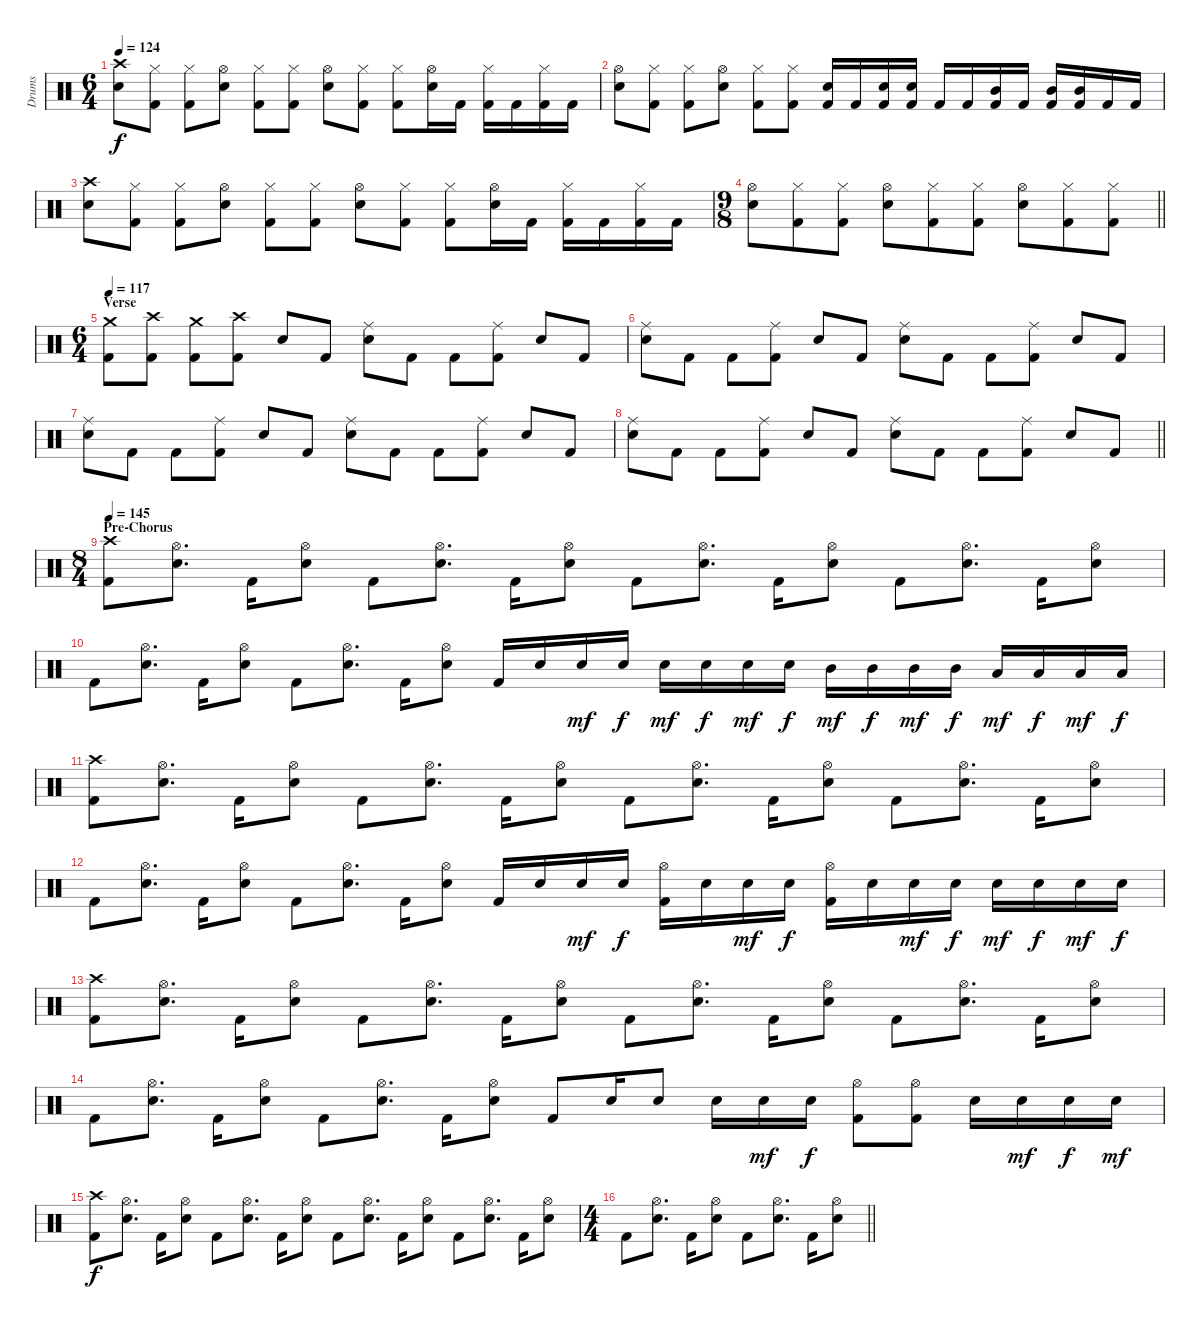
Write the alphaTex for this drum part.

\track ("Drums" "Drums") {instrument percussion}
\staff {score}
\articulation defaults
\ts (6 4)
\tempo 124
\clef neutral
\ks c
("Crash high (hit)" "Snare (hit) 2").8{dy f} ("Hi-Hat (closed)" "Kick (hit) 2").8 ("Hi-Hat (closed)" "Kick (hit) 2").8 ("Hi-Hat (open)" "Snare (hit) 2").8 ("Hi-Hat (closed)" "Kick (hit) 2").8 ("Hi-Hat (closed)" "Kick (hit) 2").8 ("Hi-Hat (open)" "Snare (hit) 2").8 ("Hi-Hat (closed)" "Kick (hit) 2").8 ("Hi-Hat (closed)" "Kick (hit) 2").8 ("Hi-Hat (open)" "Snare (hit) 2").16 "Kick (hit) 2".16 ("Hi-Hat (closed)" "Kick (hit) 2").16 "Kick (hit) 2".16 ("Hi-Hat (closed)" "Kick (hit) 2").16 "Kick (hit) 2".16 |
("Hi-Hat (open)" "Snare (hit) 2").8 ("Hi-Hat (closed)" "Kick (hit) 2").8 ("Hi-Hat (closed)" "Kick (hit) 2").8 ("Hi-Hat (open)" "Snare (hit) 2").8 ("Hi-Hat (closed)" "Kick (hit) 2").8 ("Hi-Hat (closed)" "Kick (hit) 2").8 ("Snare (hit) 2" "Kick (hit) 2").16 "Kick (hit) 2".16 ("Snare (hit) 2" "Kick (hit) 2").16 ("Snare (hit) 2" "Kick (hit) 2").16 "Kick (hit) 2".16 "Kick (hit) 2".16 ("Mid Tom (hit)" "Kick (hit) 2").16 "Kick (hit) 2".16 ("Mid Tom (hit)" "Kick (hit) 2").16 ("Mid Tom (hit)" "Kick (hit) 2").16 "Kick (hit) 2".16 "Kick (hit) 2".16 |
("Crash high (hit)" "Snare (hit) 2").8 ("Hi-Hat (closed)" "Kick (hit) 2").8 ("Hi-Hat (closed)" "Kick (hit) 2").8 ("Hi-Hat (open)" "Snare (hit) 2").8 ("Hi-Hat (closed)" "Kick (hit) 2").8 ("Hi-Hat (closed)" "Kick (hit) 2").8 ("Hi-Hat (open)" "Snare (hit) 2").8 ("Hi-Hat (closed)" "Kick (hit) 2").8 ("Hi-Hat (closed)" "Kick (hit) 2").8 ("Hi-Hat (open)" "Snare (hit) 2").16 "Kick (hit) 2".16 ("Hi-Hat (closed)" "Kick (hit) 2").16 "Kick (hit) 2".16 ("Hi-Hat (closed)" "Kick (hit) 2").16 "Kick (hit) 2".16 |
\ts (9 8)
\barLineRight lightlight
("Hi-Hat (open)" "Snare (hit) 2").8 ("Hi-Hat (closed)" "Kick (hit) 2").8 ("Hi-Hat (closed)" "Kick (hit) 2").8 ("Hi-Hat (open)" "Snare (hit) 2").8 ("Hi-Hat (closed)" "Kick (hit) 2").8 ("Hi-Hat (closed)" "Kick (hit) 2").8 ("Hi-Hat (open)" "Snare (hit) 2").8 ("Hi-Hat (closed)" "Kick (hit) 2").8 ("Hi-Hat (closed)" "Kick (hit) 2").8 |
\ts (6 4)
\section ("" "Verse")
\tempo 117
("Crash medium (hit)" "Kick (hit) 2").8 ("Crash high (hit)" "Kick (hit) 2").8 ("Crash medium (hit)" "Kick (hit) 2").8 ("Crash high (hit)" "Kick (hit) 2").8 "Snare (hit) 2".8 "Kick (hit) 2".8 ("Ride (middle)" "Snare (hit) 2").8 "Kick (hit) 2".8 "Kick (hit) 2".8 ("Ride (middle)" "Kick (hit) 2").8 "Snare (hit) 2".8 "Kick (hit) 2".8 |
("Ride (middle)" "Snare (hit) 2").8 "Kick (hit) 2".8 "Kick (hit) 2".8 ("Ride (middle)" "Kick (hit) 2").8 "Snare (hit) 2".8 "Kick (hit) 2".8 ("Ride (middle)" "Snare (hit) 2").8 "Kick (hit) 2".8 "Kick (hit) 2".8 ("Ride (middle)" "Kick (hit) 2").8 "Snare (hit) 2".8 "Kick (hit) 2".8 |
("Ride (middle)" "Snare (hit) 2").8 "Kick (hit) 2".8 "Kick (hit) 2".8 ("Ride (middle)" "Kick (hit) 2").8 "Snare (hit) 2".8 "Kick (hit) 2".8 ("Ride (middle)" "Snare (hit) 2").8 "Kick (hit) 2".8 "Kick (hit) 2".8 ("Ride (middle)" "Kick (hit) 2").8 "Snare (hit) 2".8 "Kick (hit) 2".8 |
\barLineRight lightlight
("Ride (middle)" "Snare (hit) 2").8 "Kick (hit) 2".8 "Kick (hit) 2".8 ("Ride (middle)" "Kick (hit) 2").8 "Snare (hit) 2".8 "Kick (hit) 2".8 ("Ride (middle)" "Snare (hit) 2").8 "Kick (hit) 2".8 "Kick (hit) 2".8 ("Ride (middle)" "Kick (hit) 2").8 "Snare (hit) 2".8 "Kick (hit) 2".8 |
\ts (8 4)
\section ("" "Pre-Chorus")
\tempo 145
("Crash high (hit)" "Kick (hit) 2").8 ("Hi-Hat (open)" "Snare (hit) 2").8{d} "Kick (hit) 2".16 ("Hi-Hat (open)" "Snare (hit) 2").8 "Kick (hit) 2".8 ("Hi-Hat (open)" "Snare (hit) 2").8{d} "Kick (hit) 2".16 ("Hi-Hat (open)" "Snare (hit) 2").8 "Kick (hit) 2".8 ("Hi-Hat (open)" "Snare (hit) 2").8{d} "Kick (hit) 2".16 ("Hi-Hat (open)" "Snare (hit) 2").8 "Kick (hit) 2".8 ("Hi-Hat (open)" "Snare (hit) 2").8{d} "Kick (hit) 2".16 ("Hi-Hat (open)" "Snare (hit) 2").8 |
"Kick (hit) 2".8 ("Hi-Hat (open)" "Snare (hit) 2").8{d} "Kick (hit) 2".16 ("Hi-Hat (open)" "Snare (hit) 2").8 "Kick (hit) 2".8 ("Hi-Hat (open)" "Snare (hit) 2").8{d} "Kick (hit) 2".16 ("Hi-Hat (open)" "Snare (hit) 2").8 "Kick (hit) 2".16 "Snare (hit) 2".16 "Snare (hit) 2".16{dy mf} "Snare (hit) 2".16{dy f} "Snare (hit) 2".16{dy mf} "Snare (hit) 2".16{dy f} "Snare (hit) 2".16{dy mf} "Snare (hit) 2".16{dy f} "Mid Tom (hit)".16{dy mf} "Mid Tom (hit)".16{dy f} "Mid Tom (hit)".16{dy mf} "Mid Tom (hit)".16{dy f} "Low Tom (hit)".16{dy mf} "Low Tom (hit)".16{dy f} "Low Tom (hit)".16{dy mf} "Low Tom (hit)".16{dy f} |
("Crash high (hit)" "Kick (hit) 2").8 ("Hi-Hat (open)" "Snare (hit) 2").8{d} "Kick (hit) 2".16 ("Hi-Hat (open)" "Snare (hit) 2").8 "Kick (hit) 2".8 ("Hi-Hat (open)" "Snare (hit) 2").8{d} "Kick (hit) 2".16 ("Hi-Hat (open)" "Snare (hit) 2").8 "Kick (hit) 2".8 ("Hi-Hat (open)" "Snare (hit) 2").8{d} "Kick (hit) 2".16 ("Hi-Hat (open)" "Snare (hit) 2").8 "Kick (hit) 2".8 ("Hi-Hat (open)" "Snare (hit) 2").8{d} "Kick (hit) 2".16 ("Hi-Hat (open)" "Snare (hit) 2").8 |
"Kick (hit) 2".8 ("Hi-Hat (open)" "Snare (hit) 2").8{d} "Kick (hit) 2".16 ("Hi-Hat (open)" "Snare (hit) 2").8 "Kick (hit) 2".8 ("Hi-Hat (open)" "Snare (hit) 2").8{d} "Kick (hit) 2".16 ("Hi-Hat (open)" "Snare (hit) 2").8 "Kick (hit) 2".16 "Snare (hit) 2".16 "Snare (hit) 2".16{dy mf} "Snare (hit) 2".16{dy f} ("Hi-Hat (open)" "Kick (hit) 2").16 "Snare (hit) 2".16 "Snare (hit) 2".16{dy mf} "Snare (hit) 2".16{dy f} ("Hi-Hat (open)" "Kick (hit) 2").16 "Snare (hit) 2".16 "Snare (hit) 2".16{dy mf} "Snare (hit) 2".16{dy f} "Snare (hit) 2".16{dy mf} "Snare (hit) 2".16{dy f} "Snare (hit) 2".16{dy mf} "Snare (hit) 2".16{dy f} |
("Crash high (hit)" "Kick (hit) 2").8 ("Hi-Hat (open)" "Snare (hit) 2").8{d} "Kick (hit) 2".16 ("Hi-Hat (open)" "Snare (hit) 2").8 "Kick (hit) 2".8 ("Hi-Hat (open)" "Snare (hit) 2").8{d} "Kick (hit) 2".16 ("Hi-Hat (open)" "Snare (hit) 2").8 "Kick (hit) 2".8 ("Hi-Hat (open)" "Snare (hit) 2").8{d} "Kick (hit) 2".16 ("Hi-Hat (open)" "Snare (hit) 2").8 "Kick (hit) 2".8 ("Hi-Hat (open)" "Snare (hit) 2").8{d} "Kick (hit) 2".16 ("Hi-Hat (open)" "Snare (hit) 2").8 |
"Kick (hit) 2".8 ("Hi-Hat (open)" "Snare (hit) 2").8{d} "Kick (hit) 2".16 ("Hi-Hat (open)" "Snare (hit) 2").8 "Kick (hit) 2".8 ("Hi-Hat (open)" "Snare (hit) 2").8{d} "Kick (hit) 2".16 ("Hi-Hat (open)" "Snare (hit) 2").8 "Kick (hit) 2".8 "Snare (hit) 2".16 "Snare (hit) 2".8 "Snare (hit) 2".16 "Snare (hit) 2".16{dy mf} "Snare (hit) 2".16{dy f} ("Hi-Hat (open)" "Kick (hit) 2").8 ("Hi-Hat (open)" "Kick (hit) 2").8 "Snare (hit) 2".16 "Snare (hit) 2".16{dy mf} "Snare (hit) 2".16{dy f} "Snare (hit) 2".16{dy mf} |
("Crash high (hit)" "Kick (hit) 2").8{dy f} ("Hi-Hat (open)" "Snare (hit) 2").8{d} "Kick (hit) 2".16 ("Hi-Hat (open)" "Snare (hit) 2").8 "Kick (hit) 2".8 ("Hi-Hat (open)" "Snare (hit) 2").8{d} "Kick (hit) 2".16 ("Hi-Hat (open)" "Snare (hit) 2").8 "Kick (hit) 2".8 ("Hi-Hat (open)" "Snare (hit) 2").8{d} "Kick (hit) 2".16 ("Hi-Hat (open)" "Snare (hit) 2").8 "Kick (hit) 2".8 ("Hi-Hat (open)" "Snare (hit) 2").8{d} "Kick (hit) 2".16 ("Hi-Hat (open)" "Snare (hit) 2").8 |
\ts (4 4)
\barLineRight lightlight "Kick (hit) 2".8
("Hi-Hat (open)" "Snare (hit) 2").8{d} "Kick (hit) 2".16 ("Hi-Hat (open)" "Snare (hit) 2").8 "Kick (hit) 2".8 ("Hi-Hat (open)" "Snare (hit) 2").8{d} "Kick (hit) 2".16 ("Hi-Hat (open)" "Snare (hit) 2").8
